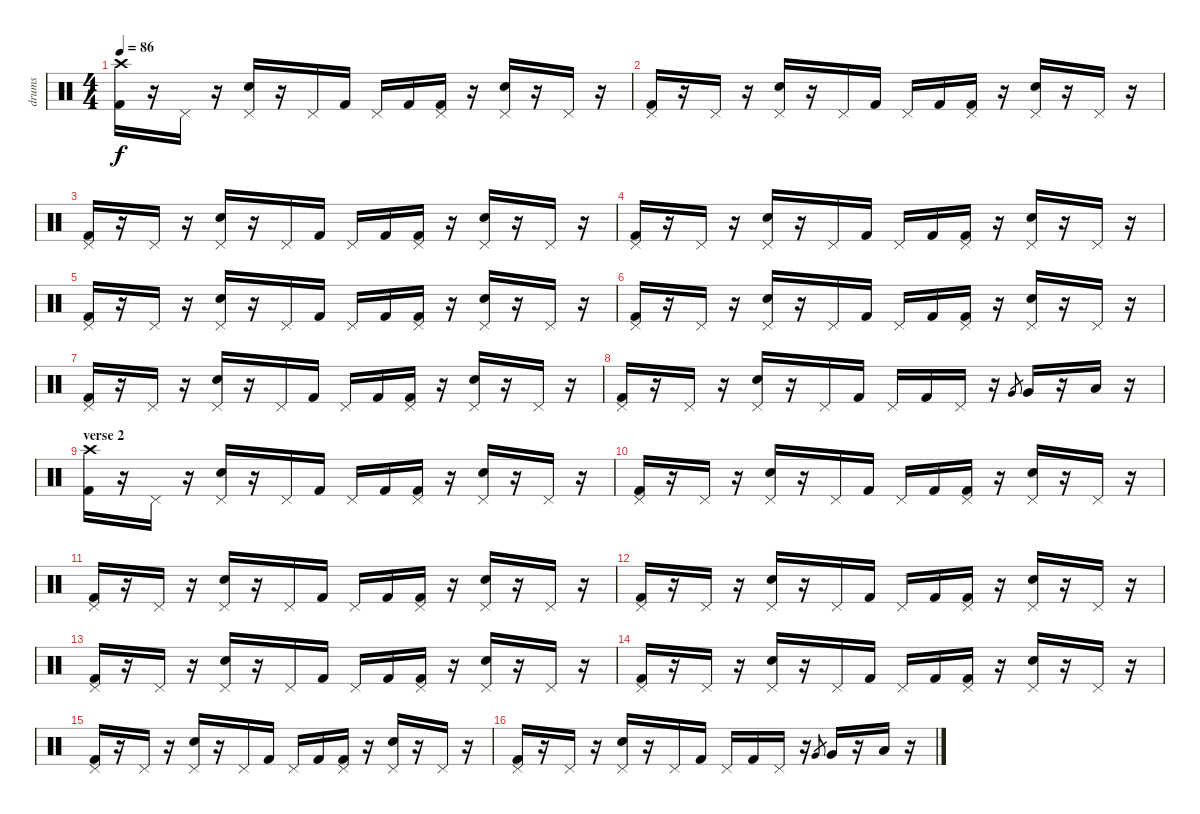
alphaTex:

\track ("drums" "drums") {instrument percussion}
\staff {score}
\articulation defaults
\ts (4 4)
\tempo 86
\clef neutral
\ks c
("Kick (hit) 2" "Crash high (hit)").16{dy f} r.16 "Pedal Hi-Hat (hit)".16 r.16 ("Electric Snare (hit)" "Pedal Hi-Hat (hit)").16 r.16 "Pedal Hi-Hat (hit)".16 "Kick (hit) 2".16 "Pedal Hi-Hat (hit)".16 "Kick (hit) 2".16 ("Kick (hit) 2" "Pedal Hi-Hat (hit)").16 r.16 ("Electric Snare (hit)" "Pedal Hi-Hat (hit)").16 r.16 "Pedal Hi-Hat (hit)".16 r.16 |
("Kick (hit) 2" "Pedal Hi-Hat (hit)").16 r.16 "Pedal Hi-Hat (hit)".16 r.16 ("Electric Snare (hit)" "Pedal Hi-Hat (hit)").16 r.16 "Pedal Hi-Hat (hit)".16 "Kick (hit) 2".16 "Pedal Hi-Hat (hit)".16 "Kick (hit) 2".16 ("Kick (hit) 2" "Pedal Hi-Hat (hit)").16 r.16 ("Electric Snare (hit)" "Pedal Hi-Hat (hit)").16 r.16 "Pedal Hi-Hat (hit)".16 r.16 |
("Kick (hit) 2" "Pedal Hi-Hat (hit)").16 r.16 "Pedal Hi-Hat (hit)".16 r.16 ("Electric Snare (hit)" "Pedal Hi-Hat (hit)").16 r.16 "Pedal Hi-Hat (hit)".16 "Kick (hit) 2".16 "Pedal Hi-Hat (hit)".16 "Kick (hit) 2".16 ("Kick (hit) 2" "Pedal Hi-Hat (hit)").16 r.16 ("Electric Snare (hit)" "Pedal Hi-Hat (hit)").16 r.16 "Pedal Hi-Hat (hit)".16 r.16 |
("Kick (hit) 2" "Pedal Hi-Hat (hit)").16 r.16 "Pedal Hi-Hat (hit)".16 r.16 ("Electric Snare (hit)" "Pedal Hi-Hat (hit)").16 r.16 "Pedal Hi-Hat (hit)".16 "Kick (hit) 2".16 "Pedal Hi-Hat (hit)".16 "Kick (hit) 2".16 ("Kick (hit) 2" "Pedal Hi-Hat (hit)").16 r.16 ("Electric Snare (hit)" "Pedal Hi-Hat (hit)").16 r.16 "Pedal Hi-Hat (hit)".16 r.16 |
("Kick (hit) 2" "Pedal Hi-Hat (hit)").16 r.16 "Pedal Hi-Hat (hit)".16 r.16 ("Electric Snare (hit)" "Pedal Hi-Hat (hit)").16 r.16 "Pedal Hi-Hat (hit)".16 "Kick (hit) 2".16 "Pedal Hi-Hat (hit)".16 "Kick (hit) 2".16 ("Kick (hit) 2" "Pedal Hi-Hat (hit)").16 r.16 ("Electric Snare (hit)" "Pedal Hi-Hat (hit)").16 r.16 "Pedal Hi-Hat (hit)".16 r.16 |
("Kick (hit) 2" "Pedal Hi-Hat (hit)").16 r.16 "Pedal Hi-Hat (hit)".16 r.16 ("Electric Snare (hit)" "Pedal Hi-Hat (hit)").16 r.16 "Pedal Hi-Hat (hit)".16 "Kick (hit) 2".16 "Pedal Hi-Hat (hit)".16 "Kick (hit) 2".16 ("Kick (hit) 2" "Pedal Hi-Hat (hit)").16 r.16 ("Electric Snare (hit)" "Pedal Hi-Hat (hit)").16 r.16 "Pedal Hi-Hat (hit)".16 r.16 |
("Kick (hit) 2" "Pedal Hi-Hat (hit)").16 r.16 "Pedal Hi-Hat (hit)".16 r.16 ("Electric Snare (hit)" "Pedal Hi-Hat (hit)").16 r.16 "Pedal Hi-Hat (hit)".16 "Kick (hit) 2".16 "Pedal Hi-Hat (hit)".16 "Kick (hit) 2".16 ("Kick (hit) 2" "Pedal Hi-Hat (hit)").16 r.16 ("Electric Snare (hit)" "Pedal Hi-Hat (hit)").16 r.16 "Pedal Hi-Hat (hit)".16 r.16 |
("Kick (hit) 2" "Pedal Hi-Hat (hit)").16 r.16 "Pedal Hi-Hat (hit)".16 r.16 ("Electric Snare (hit)" "Pedal Hi-Hat (hit)").16 r.16 "Pedal Hi-Hat (hit)".16 "Kick (hit) 2".16 "Pedal Hi-Hat (hit)".16 "Kick (hit) 2".16 "Pedal Hi-Hat (hit)".16 r.16 "Very Low Tom (hit)".8{gr} "Very Low Tom (hit)".16 r.16 "Low Tom (hit)".16 r.16 |
\section ("" "verse 2")
("Kick (hit) 2" "Crash high (hit)").16 r.16 "Pedal Hi-Hat (hit)".16 r.16 ("Electric Snare (hit)" "Pedal Hi-Hat (hit)").16 r.16 "Pedal Hi-Hat (hit)".16 "Kick (hit) 2".16 "Pedal Hi-Hat (hit)".16 "Kick (hit) 2".16 ("Kick (hit) 2" "Pedal Hi-Hat (hit)").16 r.16 ("Electric Snare (hit)" "Pedal Hi-Hat (hit)").16 r.16 "Pedal Hi-Hat (hit)".16 r.16 |
("Kick (hit) 2" "Pedal Hi-Hat (hit)").16 r.16 "Pedal Hi-Hat (hit)".16 r.16 ("Electric Snare (hit)" "Pedal Hi-Hat (hit)").16 r.16 "Pedal Hi-Hat (hit)".16 "Kick (hit) 2".16 "Pedal Hi-Hat (hit)".16 "Kick (hit) 2".16 ("Kick (hit) 2" "Pedal Hi-Hat (hit)").16 r.16 ("Electric Snare (hit)" "Pedal Hi-Hat (hit)").16 r.16 "Pedal Hi-Hat (hit)".16 r.16 |
("Kick (hit) 2" "Pedal Hi-Hat (hit)").16 r.16 "Pedal Hi-Hat (hit)".16 r.16 ("Electric Snare (hit)" "Pedal Hi-Hat (hit)").16 r.16 "Pedal Hi-Hat (hit)".16 "Kick (hit) 2".16 "Pedal Hi-Hat (hit)".16 "Kick (hit) 2".16 ("Kick (hit) 2" "Pedal Hi-Hat (hit)").16 r.16 ("Electric Snare (hit)" "Pedal Hi-Hat (hit)").16 r.16 "Pedal Hi-Hat (hit)".16 r.16 |
("Kick (hit) 2" "Pedal Hi-Hat (hit)").16 r.16 "Pedal Hi-Hat (hit)".16 r.16 ("Electric Snare (hit)" "Pedal Hi-Hat (hit)").16 r.16 "Pedal Hi-Hat (hit)".16 "Kick (hit) 2".16 "Pedal Hi-Hat (hit)".16 "Kick (hit) 2".16 ("Kick (hit) 2" "Pedal Hi-Hat (hit)").16 r.16 ("Electric Snare (hit)" "Pedal Hi-Hat (hit)").16 r.16 "Pedal Hi-Hat (hit)".16 r.16 |
("Kick (hit) 2" "Pedal Hi-Hat (hit)").16 r.16 "Pedal Hi-Hat (hit)".16 r.16 ("Electric Snare (hit)" "Pedal Hi-Hat (hit)").16 r.16 "Pedal Hi-Hat (hit)".16 "Kick (hit) 2".16 "Pedal Hi-Hat (hit)".16 "Kick (hit) 2".16 ("Kick (hit) 2" "Pedal Hi-Hat (hit)").16 r.16 ("Electric Snare (hit)" "Pedal Hi-Hat (hit)").16 r.16 "Pedal Hi-Hat (hit)".16 r.16 |
("Kick (hit) 2" "Pedal Hi-Hat (hit)").16 r.16 "Pedal Hi-Hat (hit)".16 r.16 ("Electric Snare (hit)" "Pedal Hi-Hat (hit)").16 r.16 "Pedal Hi-Hat (hit)".16 "Kick (hit) 2".16 "Pedal Hi-Hat (hit)".16 "Kick (hit) 2".16 ("Kick (hit) 2" "Pedal Hi-Hat (hit)").16 r.16 ("Electric Snare (hit)" "Pedal Hi-Hat (hit)").16 r.16 "Pedal Hi-Hat (hit)".16 r.16 |
("Kick (hit) 2" "Pedal Hi-Hat (hit)").16 r.16 "Pedal Hi-Hat (hit)".16 r.16 ("Electric Snare (hit)" "Pedal Hi-Hat (hit)").16 r.16 "Pedal Hi-Hat (hit)".16 "Kick (hit) 2".16 "Pedal Hi-Hat (hit)".16 "Kick (hit) 2".16 ("Kick (hit) 2" "Pedal Hi-Hat (hit)").16 r.16 ("Electric Snare (hit)" "Pedal Hi-Hat (hit)").16 r.16 "Pedal Hi-Hat (hit)".16 r.16 |
("Kick (hit) 2" "Pedal Hi-Hat (hit)").16 r.16 "Pedal Hi-Hat (hit)".16 r.16 ("Electric Snare (hit)" "Pedal Hi-Hat (hit)").16 r.16 "Pedal Hi-Hat (hit)".16 "Kick (hit) 2".16 "Pedal Hi-Hat (hit)".16 "Kick (hit) 2".16 "Pedal Hi-Hat (hit)".16 r.16 "Very Low Tom (hit)".8{gr} "Very Low Tom (hit)".16 r.16 "Low Tom (hit)".16 r.16
